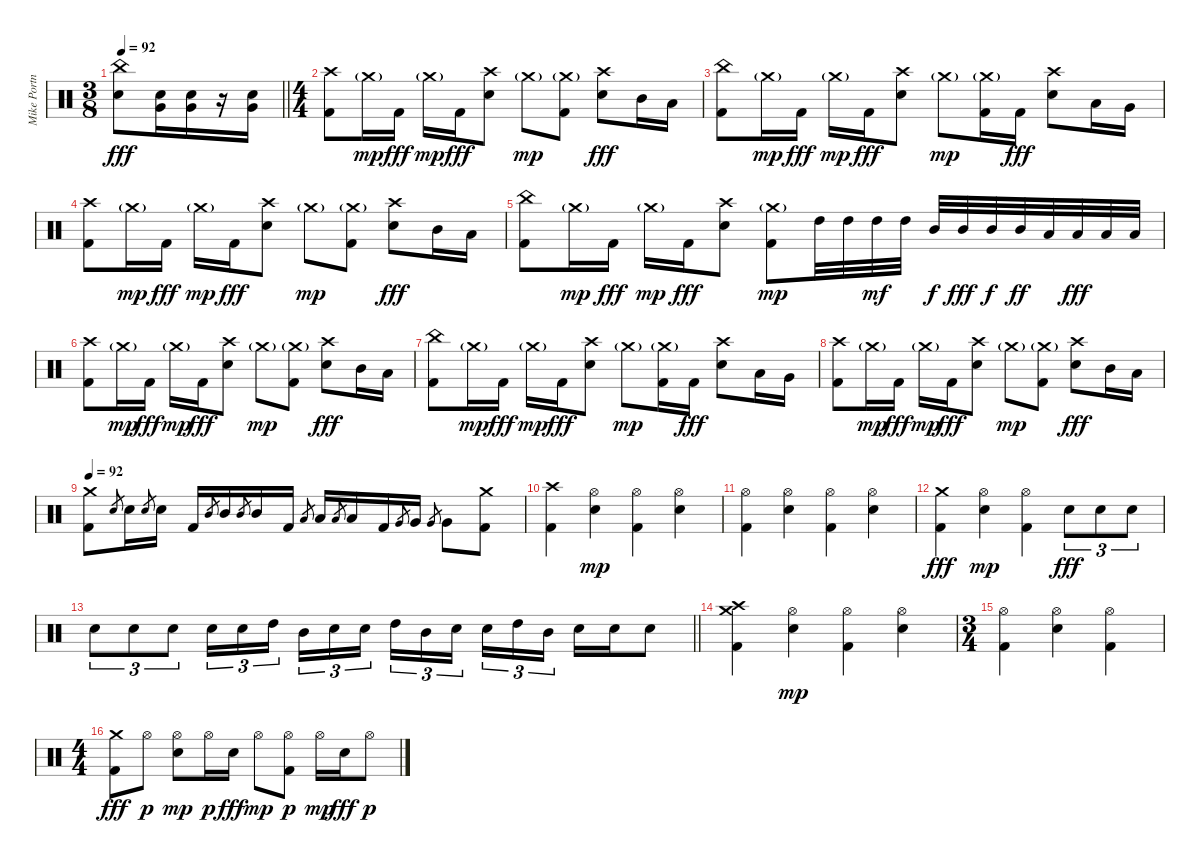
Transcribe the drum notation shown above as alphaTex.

\track ("Mike Portnoy" "Mike Portn") {instrument percussion}
\staff {score}
\articulation defaults
\ts (3 8)
\tempo 92
\clef neutral
\barLineRight lightlight
\ks c
("Electric Snare (hit)" "China (hit)").8{dy fff} ("Electric Snare (hit)" "Very Low Tom (hit)").16 ("Electric Snare (hit)" "Very Low Tom (hit)").16 r.16 ("Electric Snare (hit)" "Very Low Tom (hit)").16 |
\ts (4 4)
("Kick (hit) 2" "Crash high (hit)").8 "Crash medium (hit)"{g}.16{dy mp} "Kick (hit) 2".16{dy fff} "Crash medium (hit)"{g}.16{dy mp} "Kick (hit) 2".16{dy fff} ("Electric Snare (hit)" "Crash high (hit)").8 "Crash medium (hit)"{g}.8{dy mp} ("Kick (hit) 2" "Crash medium (hit)"{g}).8 ("Electric Snare (hit)" "Crash high (hit)").8{dy fff} "Mid Tom (hit)".16 "Low Tom (hit)".16 |
("Kick (hit) 2" "China (hit)").8 "Crash medium (hit)"{g}.16{dy mp} "Kick (hit) 2".16{dy fff} "Crash medium (hit)"{g}.16{dy mp} "Kick (hit) 2".16{dy fff} ("Electric Snare (hit)" "Crash high (hit)").8 "Crash medium (hit)"{g}.8{dy mp} ("Kick (hit) 2" "Crash medium (hit)"{g}).16 "Kick (hit) 2".16{dy fff} ("Electric Snare (hit)" "Crash high (hit)").8 "Low Tom (hit)".16 "Very Low Tom (hit)".16 |
("Kick (hit) 2" "Crash high (hit)").8 "Crash medium (hit)"{g}.16{dy mp} "Kick (hit) 2".16{dy fff} "Crash medium (hit)"{g}.16{dy mp} "Kick (hit) 2".16{dy fff} ("Electric Snare (hit)" "Crash high (hit)").8 "Crash medium (hit)"{g}.8{dy mp} ("Kick (hit) 2" "Crash medium (hit)"{g}).8 ("Electric Snare (hit)" "Crash high (hit)").8{dy fff} "Mid Tom (hit)".16 "Low Tom (hit)".16 |
("Kick (hit) 2" "China (hit)").8 "Crash medium (hit)"{g}.16{dy mp} "Kick (hit) 2".16{dy fff} "Crash medium (hit)"{g}.16{dy mp} "Kick (hit) 2".16{dy fff} ("Electric Snare (hit)" "Crash high (hit)").8 ("Kick (hit) 2" "Crash medium (hit)"{g}).8{dy mp} "High Tom (hit)".32 "High Tom (hit)".32 "High Tom (hit)".32{dy mf} "High Tom (hit)".32 "Mid Tom (hit)".32{dy f} "Mid Tom (hit)".32{dy fff} "Mid Tom (hit)".32{dy f} "Mid Tom (hit)".32{dy ff} "Low Tom (hit)".32 "Low Tom (hit)".32{dy fff} "Low Tom (hit)".32 "Low Tom (hit)".32 |
("Kick (hit) 2" "Crash high (hit)").8 "Crash medium (hit)"{g}.16{dy mp} "Kick (hit) 2".16{dy fff} "Crash medium (hit)"{g}.16{dy mp} "Kick (hit) 2".16{dy fff} ("Electric Snare (hit)" "Crash high (hit)").8 "Crash medium (hit)"{g}.8{dy mp} ("Kick (hit) 2" "Crash medium (hit)"{g}).8 ("Electric Snare (hit)" "Crash high (hit)").8{dy fff} "Mid Tom (hit)".16 "Low Tom (hit)".16 |
("Kick (hit) 2" "China (hit)").8 "Crash medium (hit)"{g}.16{dy mp} "Kick (hit) 2".16{dy fff} "Crash medium (hit)"{g}.16{dy mp} "Kick (hit) 2".16{dy fff} ("Electric Snare (hit)" "Crash high (hit)").8 "Crash medium (hit)"{g}.8{dy mp} ("Kick (hit) 2" "Crash medium (hit)"{g}).16 "Kick (hit) 2".16{dy fff} ("Electric Snare (hit)" "Crash high (hit)").8 "Low Tom (hit)".16 "Very Low Tom (hit)".16 |
("Kick (hit) 2" "Crash high (hit)").8 "Crash medium (hit)"{g}.16{dy mp} "Kick (hit) 2".16{dy fff} "Crash medium (hit)"{g}.16{dy mp} "Kick (hit) 2".16{dy fff} ("Electric Snare (hit)" "Crash high (hit)").8 "Crash medium (hit)"{g}.8{dy mp} ("Kick (hit) 2" "Crash medium (hit)"{g}).8 ("Electric Snare (hit)" "Crash high (hit)").8{dy fff} "Mid Tom (hit)".16 "Low Tom (hit)".16 |
\tempo 92
("Kick (hit) 2" "Crash medium (hit)").8 "Electric Snare (hit)".8{gr} "Electric Snare (hit)".16 "Electric Snare (hit)".8{gr} "Electric Snare (hit)".16 "Kick (hit) 2".16 "Mid Tom (hit)".8{gr} "Mid Tom (hit)".16 "Mid Tom (hit)".8{gr} "Mid Tom (hit)".16 "Kick (hit) 2".16 "Low Tom (hit)".8{gr} "Low Tom (hit)".16 "Low Tom (hit)".8{gr} "Low Tom (hit)".16 "Kick (hit) 2".16 "Very Low Tom (hit)".8{gr} "Very Low Tom (hit)".16 "Very Low Tom (hit)".8{gr} "Very Low Tom (hit)".8 ("Kick (hit) 2" "Crash medium (hit)").8 |
("Kick (hit) 2" "Crash high (hit)").4 ("Electric Snare (hit)" "Hi-Hat (open)").4{dy mp} ("Kick (hit) 2" "Hi-Hat (open)").4 ("Electric Snare (hit)" "Hi-Hat (open)").4 |
("Kick (hit) 2" "Hi-Hat (open)").4 ("Electric Snare (hit)" "Hi-Hat (open)").4 ("Kick (hit) 2" "Hi-Hat (open)").4 ("Electric Snare (hit)" "Hi-Hat (open)").4 |
("Kick (hit) 2" "Crash medium (hit)").4{dy fff} ("Electric Snare (hit)" "Hi-Hat (open)").4{dy mp} ("Kick (hit) 2" "Hi-Hat (open)").4 "Electric Snare (hit)".8{tu (3 2) dy fff} "Electric Snare (hit)".8{tu (3 2)} "Electric Snare (hit)".8{tu (3 2)} |
\barLineRight lightlight "Electric Snare (hit)".8{tu (3 2)} "Electric Snare (hit)".8{tu (3 2)} "Electric Snare (hit)".8{tu (3 2)} "Electric Snare (hit)".16{tu (3 2)} "Electric Snare (hit)".16{tu (3 2)} "High Tom (hit)".16{tu (3 2) beam splitsecondary} "Mid Tom (hit)".16{tu (3 2)} "Electric Snare (hit)".16{tu (3 2)} "Electric Snare (hit)".16{tu (3 2)} "High Tom (hit)".16{tu (3 2)} "Mid Tom (hit)".16{tu (3 2)} "Electric Snare (hit)".16{tu (3 2) beam splitsecondary} "Electric Snare (hit)".16{tu (3 2)} "High Tom (hit)".16{tu (3 2)} "Mid Tom (hit)".16{tu (3 2)} "Electric Snare (hit)".16 "Electric Snare (hit)".16 "Electric Snare (hit)".8
|
("Kick (hit) 2" "Crash high (hit)" "Crash medium (hit)").4 ("Electric Snare (hit)" "Hi-Hat (open)").4{dy mp} ("Kick (hit) 2" "Hi-Hat (open)").4 ("Electric Snare (hit)" "Hi-Hat (open)").4 |
\ts (3 4)
("Kick (hit) 2" "Hi-Hat (open)").4 ("Electric Snare (hit)" "Hi-Hat (open)").4 ("Kick (hit) 2" "Hi-Hat (open)").4 |
\ts (4 4)
("Kick (hit) 2" "Crash medium (hit)").8{dy fff} "Hi-Hat (open)".8{dy p} ("Electric Snare (hit)" "Hi-Hat (open)").8{dy mp} "Hi-Hat (open)".16{dy p} "Electric Snare (hit)".16{dy fff} "Hi-Hat (open)".8{dy mp} ("Kick (hit) 2" "Hi-Hat (open)").8{dy p} "Hi-Hat (open)".16{dy mp} "Electric Snare (hit)".16{dy fff} "Hi-Hat (open)".8{dy p}
